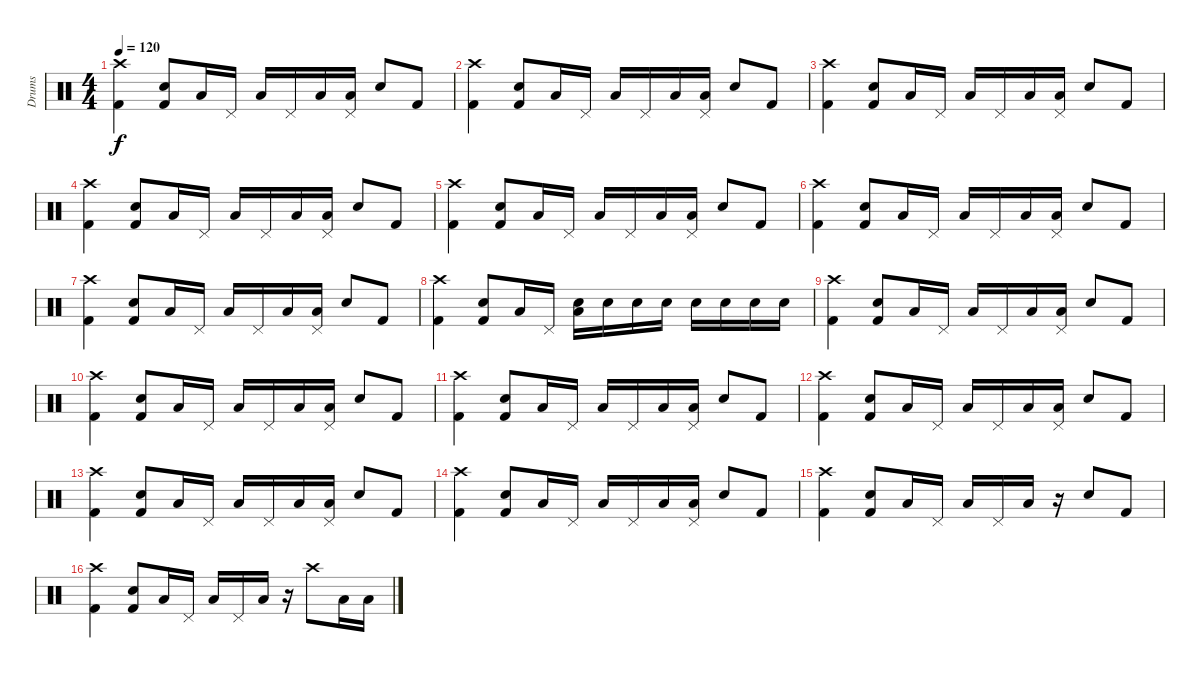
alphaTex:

\track ("Drums" "Drums") {instrument percussion}
\staff {score}
\articulation defaults
\ts (4 4)
\tempo 120
\clef neutral
\ks c
("Crash high (hit)" "Kick (hit) 2").4{dy f} ("Electric Snare (hit)" "Kick (hit) 2").8 "Low Tom (hit)".16 "Pedal Hi-Hat (hit)".16 "Low Tom (hit)".16 "Pedal Hi-Hat (hit)".16 "Low Tom (hit)".16 ("Pedal Hi-Hat (hit)" "Low Tom (hit)").16 "Electric Snare (hit)".8 "Kick (hit) 2".8 |
("Crash high (hit)" "Kick (hit) 2").4 ("Electric Snare (hit)" "Kick (hit) 2").8 "Low Tom (hit)".16 "Pedal Hi-Hat (hit)".16 "Low Tom (hit)".16 "Pedal Hi-Hat (hit)".16 "Low Tom (hit)".16 ("Pedal Hi-Hat (hit)" "Low Tom (hit)").16 "Electric Snare (hit)".8 "Kick (hit) 2".8 |
("Crash high (hit)" "Kick (hit) 2").4 ("Electric Snare (hit)" "Kick (hit) 2").8 "Low Tom (hit)".16 "Pedal Hi-Hat (hit)".16 "Low Tom (hit)".16 "Pedal Hi-Hat (hit)".16 "Low Tom (hit)".16 ("Pedal Hi-Hat (hit)" "Low Tom (hit)").16 "Electric Snare (hit)".8 "Kick (hit) 2".8 |
("Crash high (hit)" "Kick (hit) 2").4 ("Electric Snare (hit)" "Kick (hit) 2").8 "Low Tom (hit)".16 "Pedal Hi-Hat (hit)".16 "Low Tom (hit)".16 "Pedal Hi-Hat (hit)".16 "Low Tom (hit)".16 ("Pedal Hi-Hat (hit)" "Low Tom (hit)").16 "Electric Snare (hit)".8 "Kick (hit) 2".8 |
("Crash high (hit)" "Kick (hit) 2").4 ("Electric Snare (hit)" "Kick (hit) 2").8 "Low Tom (hit)".16 "Pedal Hi-Hat (hit)".16 "Low Tom (hit)".16 "Pedal Hi-Hat (hit)".16 "Low Tom (hit)".16 ("Pedal Hi-Hat (hit)" "Low Tom (hit)").16 "Electric Snare (hit)".8 "Kick (hit) 2".8 |
("Crash high (hit)" "Kick (hit) 2").4 ("Electric Snare (hit)" "Kick (hit) 2").8 "Low Tom (hit)".16 "Pedal Hi-Hat (hit)".16 "Low Tom (hit)".16 "Pedal Hi-Hat (hit)".16 "Low Tom (hit)".16 ("Pedal Hi-Hat (hit)" "Low Tom (hit)").16 "Electric Snare (hit)".8 "Kick (hit) 2".8 |
("Crash high (hit)" "Kick (hit) 2").4 ("Electric Snare (hit)" "Kick (hit) 2").8 "Low Tom (hit)".16 "Pedal Hi-Hat (hit)".16 "Low Tom (hit)".16 "Pedal Hi-Hat (hit)".16 "Low Tom (hit)".16 ("Pedal Hi-Hat (hit)" "Low Tom (hit)").16 "Electric Snare (hit)".8 "Kick (hit) 2".8 |
("Crash high (hit)" "Kick (hit) 2").4 ("Electric Snare (hit)" "Kick (hit) 2").8 "Low Tom (hit)".16 "Pedal Hi-Hat (hit)".16 ("Low Tom (hit)" "Electric Snare (hit)").16 "Electric Snare (hit)".16 "Electric Snare (hit)".16 "Electric Snare (hit)".16 "Electric Snare (hit)".16 "Electric Snare (hit)".16 "Electric Snare (hit)".16 "Electric Snare (hit)".16 |
("Crash high (hit)" "Kick (hit) 2").4 ("Electric Snare (hit)" "Kick (hit) 2").8 "Low Tom (hit)".16 "Pedal Hi-Hat (hit)".16 "Low Tom (hit)".16 "Pedal Hi-Hat (hit)".16 "Low Tom (hit)".16 ("Pedal Hi-Hat (hit)" "Low Tom (hit)").16 "Electric Snare (hit)".8 "Kick (hit) 2".8 |
("Crash high (hit)" "Kick (hit) 2").4 ("Electric Snare (hit)" "Kick (hit) 2").8 "Low Tom (hit)".16 "Pedal Hi-Hat (hit)".16 "Low Tom (hit)".16 "Pedal Hi-Hat (hit)".16 "Low Tom (hit)".16 ("Pedal Hi-Hat (hit)" "Low Tom (hit)").16 "Electric Snare (hit)".8 "Kick (hit) 2".8 |
("Crash high (hit)" "Kick (hit) 2").4 ("Electric Snare (hit)" "Kick (hit) 2").8 "Low Tom (hit)".16 "Pedal Hi-Hat (hit)".16 "Low Tom (hit)".16 "Pedal Hi-Hat (hit)".16 "Low Tom (hit)".16 ("Pedal Hi-Hat (hit)" "Low Tom (hit)").16 "Electric Snare (hit)".8 "Kick (hit) 2".8 |
("Crash high (hit)" "Kick (hit) 2").4 ("Electric Snare (hit)" "Kick (hit) 2").8 "Low Tom (hit)".16 "Pedal Hi-Hat (hit)".16 "Low Tom (hit)".16 "Pedal Hi-Hat (hit)".16 "Low Tom (hit)".16 ("Pedal Hi-Hat (hit)" "Low Tom (hit)").16 "Electric Snare (hit)".8 "Kick (hit) 2".8 |
("Crash high (hit)" "Kick (hit) 2").4 ("Electric Snare (hit)" "Kick (hit) 2").8 "Low Tom (hit)".16 "Pedal Hi-Hat (hit)".16 "Low Tom (hit)".16 "Pedal Hi-Hat (hit)".16 "Low Tom (hit)".16 ("Pedal Hi-Hat (hit)" "Low Tom (hit)").16 "Electric Snare (hit)".8 "Kick (hit) 2".8 |
("Crash high (hit)" "Kick (hit) 2").4 ("Electric Snare (hit)" "Kick (hit) 2").8 "Low Tom (hit)".16 "Pedal Hi-Hat (hit)".16 "Low Tom (hit)".16 "Pedal Hi-Hat (hit)".16 "Low Tom (hit)".16 ("Pedal Hi-Hat (hit)" "Low Tom (hit)").16 "Electric Snare (hit)".8 "Kick (hit) 2".8 |
("Crash high (hit)" "Kick (hit) 2").4 ("Electric Snare (hit)" "Kick (hit) 2").8 "Low Tom (hit)".16 "Pedal Hi-Hat (hit)".16 "Low Tom (hit)".16 "Pedal Hi-Hat (hit)".16 "Low Tom (hit)".16 r.16 "Electric Snare (hit)".8 "Kick (hit) 2".8 |
("Crash high (hit)" "Kick (hit) 2").4 ("Electric Snare (hit)" "Kick (hit) 2").8 "Low Tom (hit)".16 "Pedal Hi-Hat (hit)".16 "Low Tom (hit)".16 "Pedal Hi-Hat (hit)".16 "Low Tom (hit)".16 r.16 "Crash high (hit)".8 "Low Tom (hit)".16 "Low Tom (hit)".16
